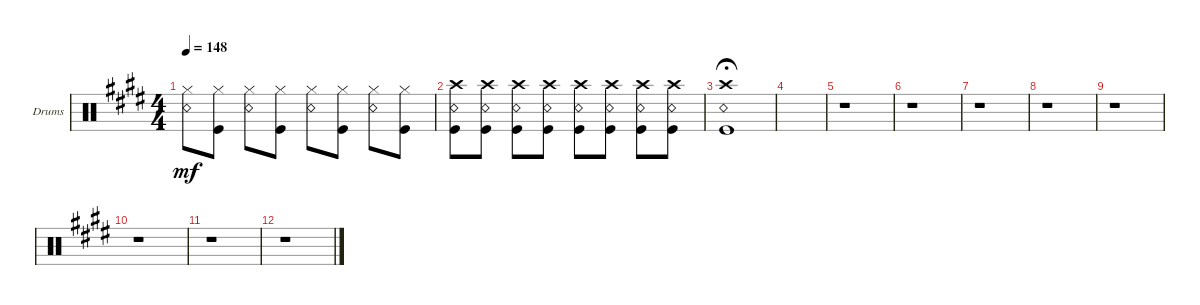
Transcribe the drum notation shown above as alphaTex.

\bracketExtendMode groupsimilarinstruments
\firstSystemTrackNameOrientation horizontal
\otherSystemsTrackNameOrientation horizontal
\track ("Drums" "Drums") {instrument percussion}
\staff {score}
\articulation defaults
\ts (4 4)
\tempo 148
\clef neutral
\ks e
("Snare (rim shot)" "Hi-Hat (closed)").8{dy mf} ("Kick (hit)" "Hi-Hat (closed)").8 ("Snare (rim shot)" "Hi-Hat (closed)").8 ("Kick (hit)" "Hi-Hat (closed)").8 ("Snare (rim shot)" "Hi-Hat (closed)").8 ("Kick (hit)" "Hi-Hat (closed)").8 ("Snare (rim shot)" "Hi-Hat (closed)").8 ("Kick (hit)" "Hi-Hat (closed)").8 |
("Kick (hit)" "Snare (rim shot)" "Crash high (hit)").8 ("Kick (hit)" "Snare (rim shot)" "Crash high (hit)").8 ("Kick (hit)" "Snare (rim shot)" "Crash high (hit)").8 ("Kick (hit)" "Snare (rim shot)" "Crash high (hit)").8 ("Kick (hit)" "Snare (rim shot)" "Crash high (hit)").8 ("Kick (hit)" "Snare (rim shot)" "Crash high (hit)").8 ("Kick (hit)" "Snare (rim shot)" "Crash high (hit)").8 ("Kick (hit)" "Snare (rim shot)" "Crash high (hit)").8 |
("Kick (hit)" "Snare (rim shot)" "Crash high (hit)").1{fermata (medium 1)} |
|
r.1 |
r.1 |
r.1 |
r.1 |
r.1 |
r.1 |
r.1 |
r.1
